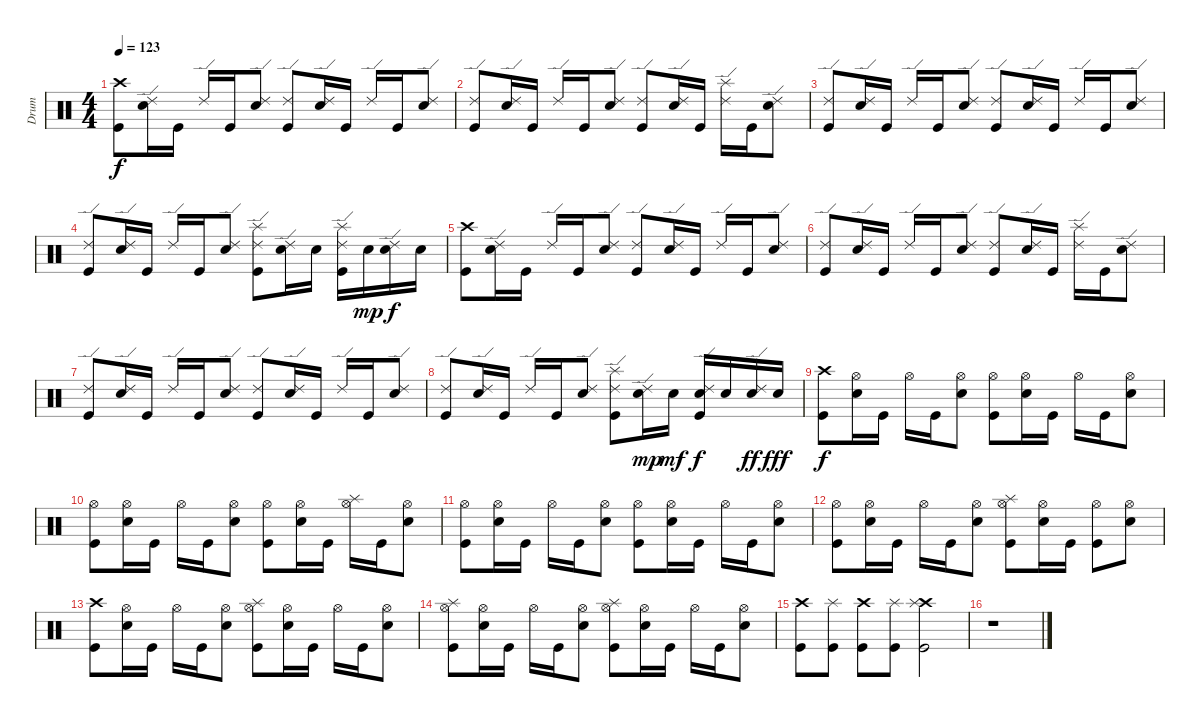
\track ("Drum" "Drum") {instrument percussion}
\staff {score}
\articulation defaults
\ts (4 4)
\tempo 123
\clef neutral
\ks c
("Crash high (hit)" "Kick (hit)").8{dy f} ("Ride (edge) 2" "Snare (hit) 2").16 "Kick (hit)".16 "Ride (edge) 2".16 "Kick (hit)".16 ("Ride (edge) 2" "Snare (hit) 2").8 ("Ride (edge) 2" "Kick (hit)").8 ("Ride (edge) 2" "Snare (hit) 2").16 "Kick (hit)".16 "Ride (edge) 2".16 "Kick (hit)".16 ("Ride (edge) 2" "Snare (hit) 2").8 |
("Ride (edge) 2" "Kick (hit)").8 ("Ride (edge) 2" "Snare (hit) 2").16 "Kick (hit)".16 "Ride (edge) 2".16 "Kick (hit)".16 ("Ride (edge) 2" "Snare (hit) 2").8 ("Ride (edge) 2" "Kick (hit)").8 ("Ride (edge) 2" "Snare (hit) 2").16 "Kick (hit)".16 ("Ride (edge) 2" "Splash (hit)").16 "Kick (hit)".16 ("Ride (edge) 2" "Snare (hit) 2").8 |
("Ride (edge) 2" "Kick (hit)").8 ("Ride (edge) 2" "Snare (hit) 2").16 "Kick (hit)".16 "Ride (edge) 2".16 "Kick (hit)".16 ("Ride (edge) 2" "Snare (hit) 2").8 ("Ride (edge) 2" "Kick (hit)").8 ("Ride (edge) 2" "Snare (hit) 2").16 "Kick (hit)".16 "Ride (edge) 2".16 "Kick (hit)".16 ("Ride (edge) 2" "Snare (hit) 2").8 |
("Ride (edge) 2" "Kick (hit)").8 ("Ride (edge) 2" "Snare (hit) 2").16 "Kick (hit)".16 "Ride (edge) 2".16 "Kick (hit)".16 ("Ride (edge) 2" "Snare (hit) 2").8 ("Ride (edge) 2" "Splash (hit)" "Kick (hit)").8 ("Ride (edge) 2" "Snare (hit) 2").16 "Snare (hit) 2".16 ("Ride (edge) 2" "Splash (hit)" "Kick (hit)").16 "Snare (hit) 2".16{dy mp} ("Ride (edge) 2" "Snare (hit) 2").16{dy f} "Snare (hit) 2".16 |
("Crash high (hit)" "Kick (hit)").8 ("Ride (edge) 2" "Snare (hit) 2").16 "Kick (hit)".16 "Ride (edge) 2".16 "Kick (hit)".16 ("Ride (edge) 2" "Snare (hit) 2").8 ("Ride (edge) 2" "Kick (hit)").8 ("Ride (edge) 2" "Snare (hit) 2").16 "Kick (hit)".16 "Ride (edge) 2".16 "Kick (hit)".16 ("Ride (edge) 2" "Snare (hit) 2").8 |
("Ride (edge) 2" "Kick (hit)").8 ("Ride (edge) 2" "Snare (hit) 2").16 "Kick (hit)".16 "Ride (edge) 2".16 "Kick (hit)".16 ("Ride (edge) 2" "Snare (hit) 2").8 ("Ride (edge) 2" "Kick (hit)").8 ("Ride (edge) 2" "Snare (hit) 2").16 "Kick (hit)".16 ("Ride (edge) 2" "Splash (hit)").16 "Kick (hit)".16 ("Ride (edge) 2" "Snare (hit) 2").8 |
("Ride (edge) 2" "Kick (hit)").8 ("Ride (edge) 2" "Snare (hit) 2").16 "Kick (hit)".16 "Ride (edge) 2".16 "Kick (hit)".16 ("Ride (edge) 2" "Snare (hit) 2").8 ("Ride (edge) 2" "Kick (hit)").8 ("Ride (edge) 2" "Snare (hit) 2").16 "Kick (hit)".16 "Ride (edge) 2".16 "Kick (hit)".16 ("Ride (edge) 2" "Snare (hit) 2").8 |
("Ride (edge) 2" "Kick (hit)").8 ("Ride (edge) 2" "Snare (hit) 2").16 "Kick (hit)".16 "Ride (edge) 2".16 "Kick (hit)".16 ("Ride (edge) 2" "Snare (hit) 2").8 ("Ride (edge) 2" "Splash (hit)" "Kick (hit)").8 ("Ride (edge) 2" "Snare (hit) 2").16{dy mp} "Snare (hit) 2".16{dy mf} ("Ride (edge) 2" "Snare (hit) 2" "Kick (hit)").16{dy f} "Snare (hit) 2".16 ("Ride (edge) 2" "Snare (hit) 2").16{dy ff} "Snare (hit) 2".16{dy fff} |
("Crash high (hit)" "Kick (hit)").8{dy f} ("Hi-Hat (open)" "Snare (hit) 2").16 "Kick (hit)".16 "Hi-Hat (open)".16 "Kick (hit)".16 ("Hi-Hat (open)" "Snare (hit) 2").8 ("Hi-Hat (open)" "Kick (hit)").8 ("Hi-Hat (open)" "Snare (hit) 2").16 "Kick (hit)".16 "Hi-Hat (open)".16 "Kick (hit)".16 ("Hi-Hat (open)" "Snare (hit) 2").8 |
("Hi-Hat (open)" "Kick (hit)").8 ("Hi-Hat (open)" "Snare (hit) 2").16 "Kick (hit)".16 "Hi-Hat (open)".16 "Kick (hit)".16 ("Hi-Hat (open)" "Snare (hit) 2").8 ("Hi-Hat (open)" "Kick (hit)").8 ("Hi-Hat (open)" "Snare (hit) 2").16 "Kick (hit)".16 ("Hi-Hat (open)" "Splash (hit)").16 "Kick (hit)".16 ("Hi-Hat (open)" "Snare (hit) 2").8 |
("Hi-Hat (open)" "Kick (hit)").8 ("Hi-Hat (open)" "Snare (hit) 2").16 "Kick (hit)".16 "Hi-Hat (open)".16 "Kick (hit)".16 ("Hi-Hat (open)" "Snare (hit) 2").8 ("Hi-Hat (open)" "Kick (hit)").8 ("Hi-Hat (open)" "Snare (hit) 2").16 "Kick (hit)".16 "Hi-Hat (open)".16 "Kick (hit)".16 ("Hi-Hat (open)" "Snare (hit) 2").8 |
("Hi-Hat (open)" "Kick (hit)").8 ("Hi-Hat (open)" "Snare (hit) 2").16 "Kick (hit)".16 "Hi-Hat (open)".16 "Kick (hit)".16 ("Hi-Hat (open)" "Snare (hit) 2").8 ("Hi-Hat (open)" "Splash (hit)" "Kick (hit)").8 ("Hi-Hat (open)" "Snare (hit) 2").16 "Kick (hit)".16 ("Hi-Hat (open)" "Kick (hit)").8 ("Hi-Hat (open)" "Snare (hit) 2").8 |
("Crash high (hit)" "Kick (hit)").8 ("Hi-Hat (open)" "Snare (hit) 2").16 "Kick (hit)".16 "Hi-Hat (open)".16 "Kick (hit)".16 ("Hi-Hat (open)" "Snare (hit) 2").8 ("Hi-Hat (open)" "Splash (hit)" "Kick (hit)").8 ("Hi-Hat (open)" "Snare (hit) 2").16 "Kick (hit)".16 "Hi-Hat (open)".16 "Kick (hit)".16 ("Hi-Hat (open)" "Snare (hit) 2").8 |
("Hi-Hat (open)" "Splash (hit)" "Kick (hit)").8 ("Hi-Hat (open)" "Snare (hit) 2").16 "Kick (hit)".16 "Hi-Hat (open)".16 "Kick (hit)".16 ("Hi-Hat (open)" "Snare (hit) 2").8 ("Hi-Hat (open)" "Splash (hit)" "Kick (hit)").8 ("Hi-Hat (open)" "Snare (hit) 2").16 "Kick (hit)".16 "Hi-Hat (open)".16 "Kick (hit)".16 ("Hi-Hat (open)" "Snare (hit) 2").8 |
("Crash high (hit)" "Kick (hit)").8 ("Splash (hit)" "Kick (hit)").8 ("Crash high (hit)" "Kick (hit)").8 ("Splash (hit)" "Kick (hit)").8 ("Crash high (hit)" "Splash (hit)" "Kick (hit)").2 |
r.1
